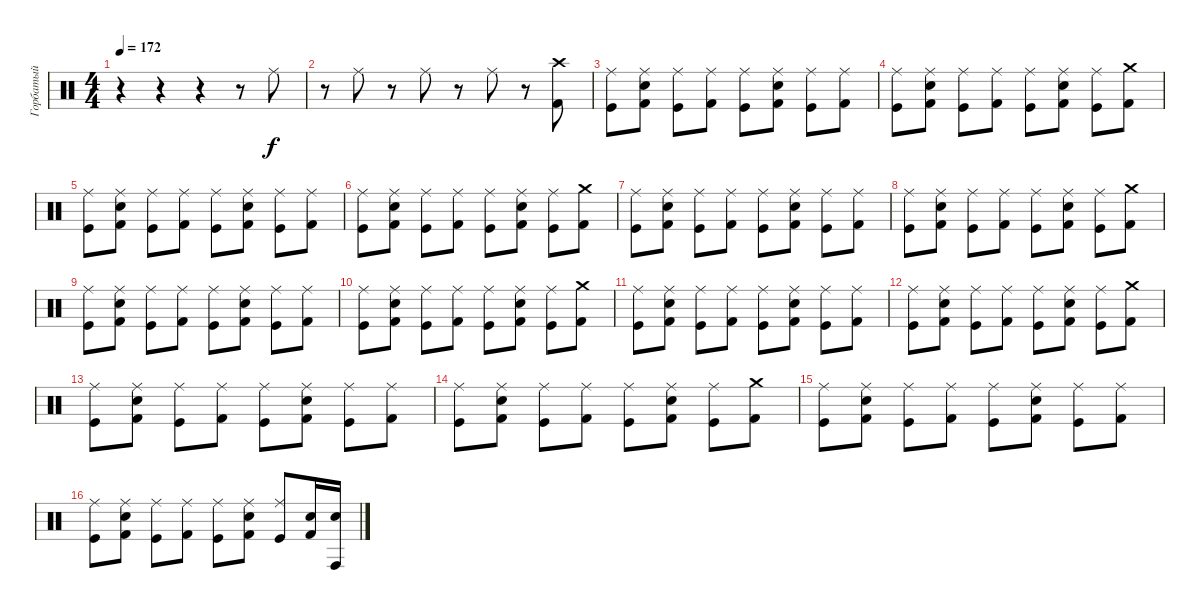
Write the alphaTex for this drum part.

\track ("Горбатый" "Горбатый") {instrument percussion}
\staff {score}
\articulation defaults
\ts (4 4)
\tempo 172
\clef neutral
\ks c
r.4{dy f} r.4 r.4 r.8 "Ride (middle)".8 |
r.8 "Ride (middle)".8 r.8 "Ride (middle)".8 r.8 "Ride (middle)".8 r.8 ("Crash high (hit)" "Kick (hit) 2").8 |
("Ride (middle)" "Kick (hit)").8 ("Electric Snare (hit)" "Ride (middle)" "Kick (hit) 2").8 ("Ride (middle)" "Kick (hit)").8 ("Ride (middle)" "Kick (hit) 2").8 ("Ride (middle)" "Kick (hit)").8 ("Electric Snare (hit)" "Ride (middle)" "Kick (hit) 2").8 ("Ride (middle)" "Kick (hit)").8 ("Ride (middle)" "Kick (hit) 2").8 |
("Ride (middle)" "Kick (hit)").8 ("Electric Snare (hit)" "Ride (middle)" "Kick (hit) 2").8 ("Ride (middle)" "Kick (hit)").8 ("Ride (middle)" "Kick (hit) 2").8 ("Ride (middle)" "Kick (hit)").8 ("Electric Snare (hit)" "Ride (middle)" "Kick (hit) 2").8 ("Ride (middle)" "Kick (hit)").8 ("Crash medium (hit)" "Kick (hit) 2").8 |
("Ride (middle)" "Kick (hit)").8 ("Electric Snare (hit)" "Ride (middle)" "Kick (hit) 2").8 ("Ride (middle)" "Kick (hit)").8 ("Ride (middle)" "Kick (hit) 2").8 ("Ride (middle)" "Kick (hit)").8 ("Electric Snare (hit)" "Ride (middle)" "Kick (hit) 2").8 ("Ride (middle)" "Kick (hit)").8 ("Ride (middle)" "Kick (hit) 2").8 |
("Ride (middle)" "Kick (hit)").8 ("Electric Snare (hit)" "Ride (middle)" "Kick (hit) 2").8 ("Ride (middle)" "Kick (hit)").8 ("Ride (middle)" "Kick (hit) 2").8 ("Ride (middle)" "Kick (hit)").8 ("Electric Snare (hit)" "Ride (middle)" "Kick (hit) 2").8 ("Ride (middle)" "Kick (hit)").8 ("Crash medium (hit)" "Kick (hit) 2").8 |
("Ride (middle)" "Kick (hit)").8 ("Electric Snare (hit)" "Ride (middle)" "Kick (hit) 2").8 ("Ride (middle)" "Kick (hit)").8 ("Ride (middle)" "Kick (hit) 2").8 ("Ride (middle)" "Kick (hit)").8 ("Electric Snare (hit)" "Ride (middle)" "Kick (hit) 2").8 ("Ride (middle)" "Kick (hit)").8 ("Ride (middle)" "Kick (hit) 2").8 |
("Ride (middle)" "Kick (hit)").8 ("Electric Snare (hit)" "Ride (middle)" "Kick (hit) 2").8 ("Ride (middle)" "Kick (hit)").8 ("Ride (middle)" "Kick (hit) 2").8 ("Ride (middle)" "Kick (hit)").8 ("Electric Snare (hit)" "Ride (middle)" "Kick (hit) 2").8 ("Ride (middle)" "Kick (hit)").8 ("Crash medium (hit)" "Kick (hit) 2").8 |
("Ride (middle)" "Kick (hit)").8 ("Electric Snare (hit)" "Ride (middle)" "Kick (hit) 2").8 ("Ride (middle)" "Kick (hit)").8 ("Ride (middle)" "Kick (hit) 2").8 ("Ride (middle)" "Kick (hit)").8 ("Electric Snare (hit)" "Ride (middle)" "Kick (hit) 2").8 ("Ride (middle)" "Kick (hit)").8 ("Ride (middle)" "Kick (hit) 2").8 |
("Ride (middle)" "Kick (hit)").8 ("Electric Snare (hit)" "Ride (middle)" "Kick (hit) 2").8 ("Ride (middle)" "Kick (hit)").8 ("Ride (middle)" "Kick (hit) 2").8 ("Ride (middle)" "Kick (hit)").8 ("Electric Snare (hit)" "Ride (middle)" "Kick (hit) 2").8 ("Ride (middle)" "Kick (hit)").8 ("Crash medium (hit)" "Kick (hit) 2").8 |
("Ride (middle)" "Kick (hit)").8 ("Electric Snare (hit)" "Ride (middle)" "Kick (hit) 2").8 ("Ride (middle)" "Kick (hit)").8 ("Ride (middle)" "Kick (hit) 2").8 ("Ride (middle)" "Kick (hit)").8 ("Electric Snare (hit)" "Ride (middle)" "Kick (hit) 2").8 ("Ride (middle)" "Kick (hit)").8 ("Ride (middle)" "Kick (hit) 2").8 |
("Ride (middle)" "Kick (hit)").8 ("Electric Snare (hit)" "Ride (middle)" "Kick (hit) 2").8 ("Ride (middle)" "Kick (hit)").8 ("Ride (middle)" "Kick (hit) 2").8 ("Ride (middle)" "Kick (hit)").8 ("Electric Snare (hit)" "Ride (middle)" "Kick (hit) 2").8 ("Ride (middle)" "Kick (hit)").8 ("Crash medium (hit)" "Kick (hit) 2").8 |
("Ride (middle)" "Kick (hit)").8 ("Electric Snare (hit)" "Ride (middle)" "Kick (hit) 2").8 ("Ride (middle)" "Kick (hit)").8 ("Ride (middle)" "Kick (hit) 2").8 ("Ride (middle)" "Kick (hit)").8 ("Electric Snare (hit)" "Ride (middle)" "Kick (hit) 2").8 ("Ride (middle)" "Kick (hit)").8 ("Ride (middle)" "Kick (hit) 2").8 |
("Ride (middle)" "Kick (hit)").8 ("Electric Snare (hit)" "Ride (middle)" "Kick (hit) 2").8 ("Ride (middle)" "Kick (hit)").8 ("Ride (middle)" "Kick (hit) 2").8 ("Ride (middle)" "Kick (hit)").8 ("Electric Snare (hit)" "Ride (middle)" "Kick (hit) 2").8 ("Ride (middle)" "Kick (hit)").8 ("Crash medium (hit)" "Kick (hit) 2").8 |
("Ride (middle)" "Kick (hit)").8 ("Electric Snare (hit)" "Ride (middle)" "Kick (hit) 2").8 ("Ride (middle)" "Kick (hit)").8 ("Ride (middle)" "Kick (hit) 2").8 ("Ride (middle)" "Kick (hit)").8 ("Electric Snare (hit)" "Ride (middle)" "Kick (hit) 2").8 ("Ride (middle)" "Kick (hit)").8 ("Ride (middle)" "Kick (hit) 2").8 |
("Ride (middle)" "Kick (hit)").8 ("Electric Snare (hit)" "Ride (middle)" "Kick (hit) 2").8 ("Ride (middle)" "Kick (hit)").8 ("Ride (middle)" "Kick (hit) 2").8 ("Ride (middle)" "Kick (hit)").8 ("Electric Snare (hit)" "Ride (middle)" "Kick (hit) 2").8 ("Ride (middle)" "Kick (hit)").8 ("Kick (hit) 2" "Electric Snare (hit)").16 ("Conga high (hit)" "Electric Snare (hit)").16
